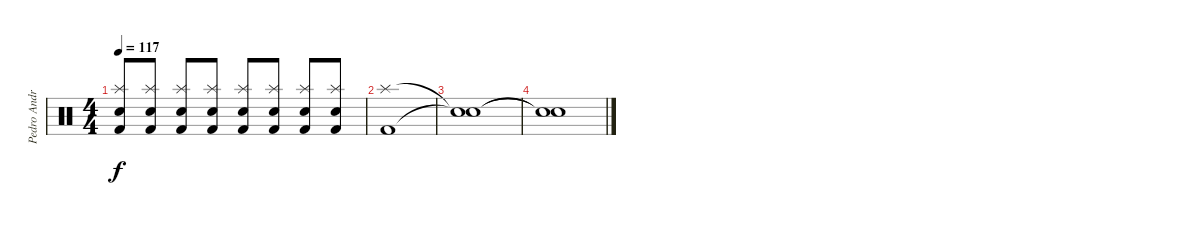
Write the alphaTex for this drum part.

\track ("Pedro Andreu - Batería" "Pedro Andr") {instrument percussion}
\staff {score}
\articulation defaults
\ts (4 4)
\tempo 117
\clef neutral
\ks c
("Snare (hit) 2" "Splash (hit)" "Kick (hit) 2").8{dy f} ("Snare (hit) 2" "Kick (hit) 2" "Splash (hit)").8 ("Snare (hit) 2" "Kick (hit) 2" "Splash (hit)").8 ("Snare (hit) 2" "Kick (hit) 2" "Splash (hit)").8 ("Snare (hit) 2" "Kick (hit) 2" "Splash (hit)").8 ("Snare (hit) 2" "Kick (hit) 2" "Splash (hit)").8 ("Snare (hit) 2" "Kick (hit) 2" "Splash (hit)").8 ("Snare (hit) 2" "Kick (hit) 2" "Splash (hit)").8 |
("Kick (hit) 2" "Splash (hit)").1 |
("Snare (hit)"{t} "Snare (hit)"{t}).1 |
("Snare (hit)"{t} "Snare (hit)"{t}).1
